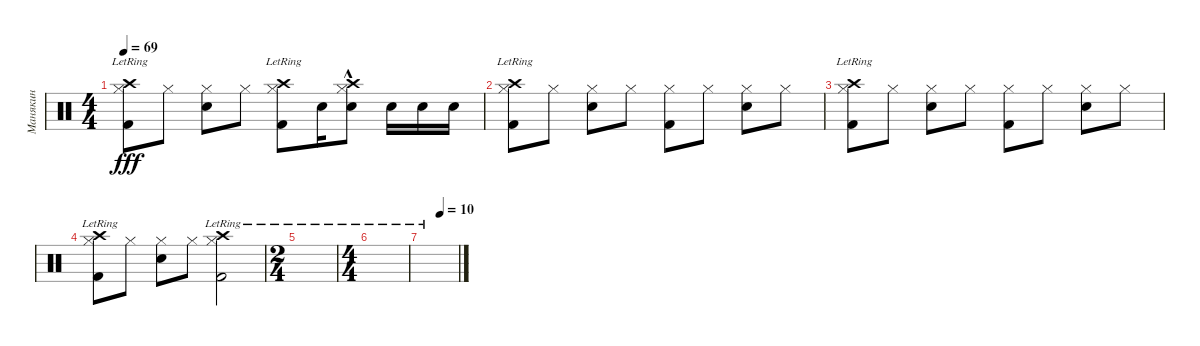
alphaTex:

\track ("Манякин" "Манякин") {instrument percussion}
\staff {score}
\articulation defaults
\ts (4 4)
\tempo 69
\clef neutral
\ks c
("Hi-Hat (closed)" "Kick (hit) 2" "Crash high (hit)"{lr}).8{dy fff} "Hi-Hat (closed)".8 ("Hi-Hat (closed)" "Snare (hit) 2").8 "Hi-Hat (closed)".8 ("Hi-Hat (closed)" "Kick (hit) 2" "Crash high (hit)"{lr}).8 "Snare (hit) 2".16 ("Hi-Hat (closed)" "Snare (hit) 2" "Crash high (hit)"{hac}).8 "Snare (hit) 2".16 "Snare (hit) 2".16 "Snare (hit) 2".16 |
("Hi-Hat (closed)" "Kick (hit) 2" "Crash high (hit)"{lr}).8 "Hi-Hat (closed)".8 ("Hi-Hat (closed)" "Snare (hit) 2").8 "Hi-Hat (closed)".8 ("Hi-Hat (closed)" "Kick (hit) 2").8 "Hi-Hat (closed)".8 ("Hi-Hat (closed)" "Snare (hit) 2").8 "Hi-Hat (closed)".8 |
("Hi-Hat (closed)" "Kick (hit) 2" "Crash high (hit)"{lr}).8 "Hi-Hat (closed)".8 ("Hi-Hat (closed)" "Snare (hit) 2").8 "Hi-Hat (closed)".8 ("Hi-Hat (closed)" "Kick (hit) 2").8 "Hi-Hat (closed)".8 ("Hi-Hat (closed)" "Snare (hit) 2").8 "Hi-Hat (closed)".8 |
("Hi-Hat (closed)" "Kick (hit) 2" "Crash high (hit)"{lr}).8 "Hi-Hat (closed)".8 ("Hi-Hat (closed)" "Snare (hit) 2").8 "Hi-Hat (closed)".8 ("Hi-Hat (closed)" "Kick (hit) 2" "Crash high (hit)"{lr}).2 |
\ts (2 4)
|
\ts (4 4)
|
\tempo (10 0.5)
